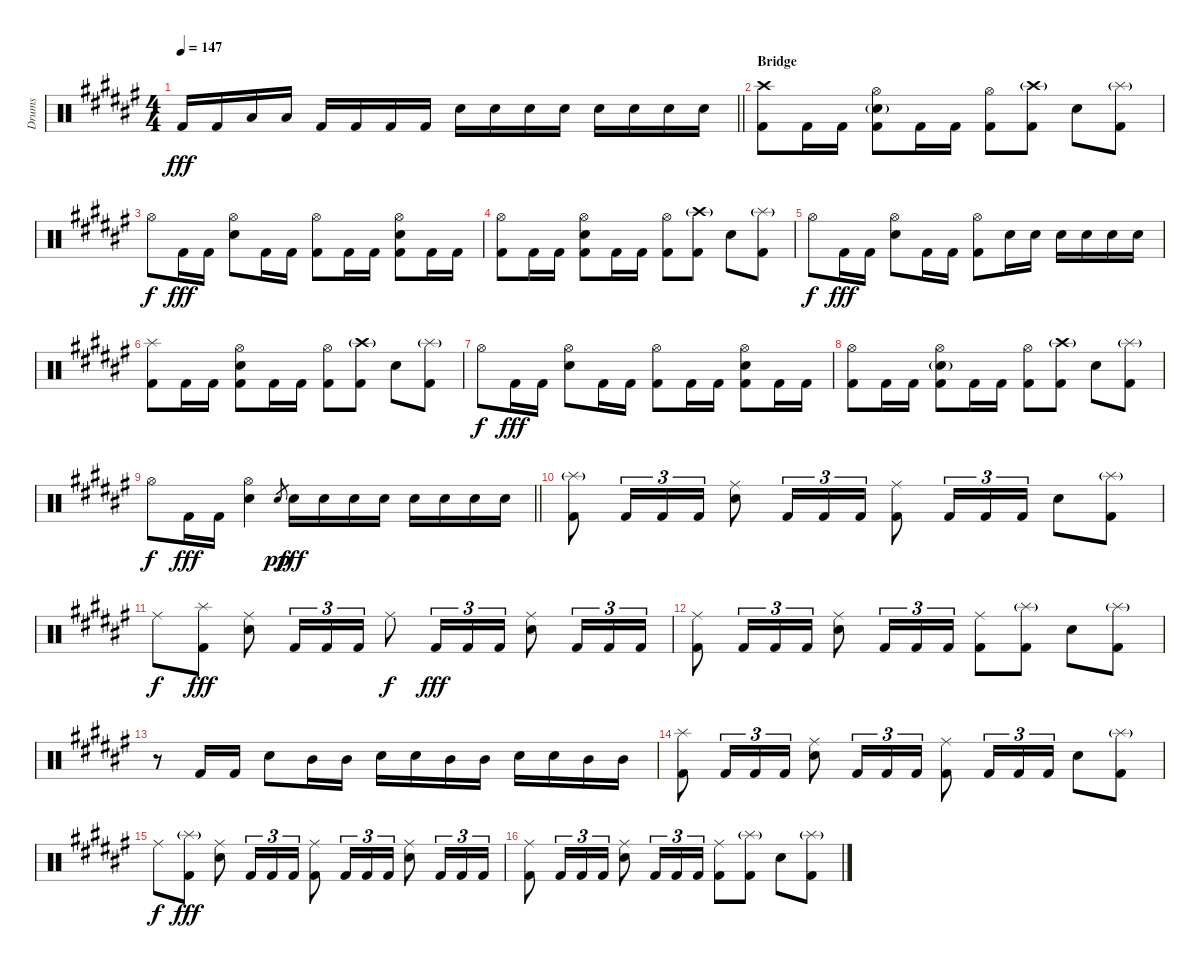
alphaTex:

\track ("Drums" "Drums") {instrument percussion}
\staff {score}
\articulation defaults
\ts (4 4)
\tempo 147
\clef neutral
\barLineRight lightlight
\ks d#minor "Kick (hit) 2".16{dy fff} "Kick (hit) 2".16 "Low Tom (hit)".16 "Low Tom (hit)".16 "Kick (hit) 2".16 "Kick (hit) 2".16 "Kick (hit) 2".16 "Kick (hit) 2".16 "Snare (hit) 2".16 "Snare (hit) 2".16 "Snare (hit) 2".16 "Snare (hit) 2".16 "Snare (hit) 2".16 "Snare (hit) 2".16 "Snare (hit) 2".16 "Snare (hit) 2".16
|
\section ("" "Bridge")
("Crash high (hit)" "Kick (hit) 2").8 "Kick (hit) 2".16 "Kick (hit) 2".16 ("Hi-Hat (open)" "Snare (hit) 2"{g} "Kick (hit) 2").8 "Kick (hit) 2".16 "Kick (hit) 2".16 ("Hi-Hat (open)" "Kick (hit) 2").8 ("Crash high (hit)"{g} "Kick (hit) 2").8 "Snare (hit) 2".8 ("Splash (hit)"{g} "Kick (hit) 2").8 |
"Hi-Hat (open)".8{dy f} "Kick (hit) 2".16{dy fff} "Kick (hit) 2".16 ("Hi-Hat (open)" "Snare (hit) 2").8 "Kick (hit) 2".16 "Kick (hit) 2".16 ("Hi-Hat (open)" "Kick (hit) 2").8 "Kick (hit) 2".16 "Kick (hit) 2".16 ("Hi-Hat (open)" "Snare (hit) 2" "Kick (hit) 2").8 "Kick (hit) 2".16 "Kick (hit) 2".16 |
("Hi-Hat (open)" "Kick (hit) 2").8 "Kick (hit) 2".16 "Kick (hit) 2".16 ("Hi-Hat (open)" "Snare (hit) 2" "Kick (hit) 2").8 "Kick (hit) 2".16 "Kick (hit) 2".16 ("Hi-Hat (open)" "Kick (hit) 2").8 ("Crash high (hit)"{g} "Kick (hit) 2").8 "Snare (hit) 2".8 ("Splash (hit)"{g} "Kick (hit) 2").8 |
"Hi-Hat (open)".8{dy f} "Kick (hit) 2".16{dy fff} "Kick (hit) 2".16 ("Hi-Hat (open)" "Snare (hit) 2").8 "Kick (hit) 2".16 "Kick (hit) 2".16 ("Hi-Hat (open)" "Kick (hit) 2").8 "Snare (hit) 2".16 "Snare (hit) 2".16 "Snare (hit) 2".16 "Snare (hit) 2".16 "Snare (hit) 2".16 "Snare (hit) 2".16 |
("Splash (hit)" "Kick (hit) 2").8 "Kick (hit) 2".16 "Kick (hit) 2".16 ("Hi-Hat (open)" "Snare (hit) 2" "Kick (hit) 2").8 "Kick (hit) 2".16 "Kick (hit) 2".16 ("Hi-Hat (open)" "Kick (hit) 2").8 ("Crash high (hit)"{g} "Kick (hit) 2").8 "Snare (hit) 2".8 ("Splash (hit)"{g} "Kick (hit) 2").8 |
"Hi-Hat (open)".8{dy f} "Kick (hit) 2".16{dy fff} "Kick (hit) 2".16 ("Hi-Hat (open)" "Snare (hit) 2").8 "Kick (hit) 2".16 "Kick (hit) 2".16 ("Hi-Hat (open)" "Kick (hit) 2").8 "Kick (hit) 2".16 "Kick (hit) 2".16 ("Hi-Hat (open)" "Snare (hit) 2" "Kick (hit) 2").8 "Kick (hit) 2".16 "Kick (hit) 2".16 |
("Hi-Hat (open)" "Kick (hit) 2").8 "Kick (hit) 2".16 "Kick (hit) 2".16 ("Hi-Hat (open)" "Snare (hit) 2"{g} "Kick (hit) 2").8 "Kick (hit) 2".16 "Kick (hit) 2".16 ("Hi-Hat (open)" "Kick (hit) 2").8 ("Crash high (hit)"{g} "Kick (hit) 2").8 "Snare (hit) 2".8 ("Splash (hit)"{g} "Kick (hit) 2").8 |
\barLineRight lightlight "Hi-Hat (open)".8{dy f} "Kick (hit) 2".16{dy fff} "Kick (hit) 2".16
("Hi-Hat (open)" "Snare (hit) 2").4 "Snare (hit) 2".8{gr dy pp} "Snare (hit) 2".16{dy fff} "Snare (hit) 2".16 "Snare (hit) 2".16 "Snare (hit) 2".16 "Snare (hit) 2".16 "Snare (hit) 2".16 "Snare (hit) 2".16 "Snare (hit) 2".16 |
\section ("" "")
("Splash (hit)"{g} "Kick (hit) 2").8 "Kick (hit) 2".16{tu (3 2)} "Kick (hit) 2".16{tu (3 2)} "Kick (hit) 2".16{tu (3 2)} ("Ride (middle)" "Snare (hit) 2").8 "Kick (hit) 2".16{tu (3 2)} "Kick (hit) 2".16{tu (3 2)} "Kick (hit) 2".16{tu (3 2)} ("Ride (middle)" "Kick (hit) 2").8 "Kick (hit) 2".16{tu (3 2)} "Kick (hit) 2".16{tu (3 2)} "Kick (hit) 2".16{tu (3 2)} "Snare (hit) 2".8 ("Splash (hit)"{g} "Kick (hit) 2").8 |
"Ride (middle)".8{dy f} ("Splash (hit)" "Kick (hit) 2").8{dy fff} ("Ride (middle)" "Snare (hit) 2").8 "Kick (hit) 2".16{tu (3 2)} "Kick (hit) 2".16{tu (3 2)} "Kick (hit) 2".16{tu (3 2)} "Ride (middle)".8{dy f} "Kick (hit) 2".16{tu (3 2) dy fff} "Kick (hit) 2".16{tu (3 2)} "Kick (hit) 2".16{tu (3 2)} ("Ride (middle)" "Snare (hit) 2").8 "Kick (hit) 2".16{tu (3 2)} "Kick (hit) 2".16{tu (3 2)} "Kick (hit) 2".16{tu (3 2)} |
("Ride (middle)" "Kick (hit) 2").8 "Kick (hit) 2".16{tu (3 2)} "Kick (hit) 2".16{tu (3 2)} "Kick (hit) 2".16{tu (3 2)} ("Ride (middle)" "Snare (hit) 2").8 "Kick (hit) 2".16{tu (3 2)} "Kick (hit) 2".16{tu (3 2)} "Kick (hit) 2".16{tu (3 2)} ("Ride (middle)" "Kick (hit) 2").8 ("Splash (hit)"{g} "Kick (hit) 2").8 "Snare (hit) 2".8 ("Splash (hit)"{g} "Kick (hit) 2").8 |
r.8 "Kick (hit) 2".16 "Kick (hit) 2".16 "Snare (hit) 2".8 "Mid Tom (hit)".16 "Mid Tom (hit)".16 "Snare (hit) 2".16 "Snare (hit) 2".16 "Mid Tom (hit)".16 "Mid Tom (hit)".16 "Snare (hit) 2".16 "Snare (hit) 2".16 "Mid Tom (hit)".16 "Mid Tom (hit)".16 |
("Splash (hit)" "Kick (hit) 2").8 "Kick (hit) 2".16{tu (3 2)} "Kick (hit) 2".16{tu (3 2)} "Kick (hit) 2".16{tu (3 2)} ("Ride (middle)" "Snare (hit) 2").8 "Kick (hit) 2".16{tu (3 2)} "Kick (hit) 2".16{tu (3 2)} "Kick (hit) 2".16{tu (3 2)} ("Ride (middle)" "Kick (hit) 2").8 "Kick (hit) 2".16{tu (3 2)} "Kick (hit) 2".16{tu (3 2)} "Kick (hit) 2".16{tu (3 2)} "Snare (hit) 2".8 ("Splash (hit)"{g} "Kick (hit) 2").8 |
"Ride (middle)".8{dy f} ("Splash (hit)"{g} "Kick (hit) 2").8{dy fff} ("Ride (middle)" "Snare (hit) 2").8 "Kick (hit) 2".16{tu (3 2)} "Kick (hit) 2".16{tu (3 2)} "Kick (hit) 2".16{tu (3 2)} ("Ride (middle)" "Kick (hit) 2").8 "Kick (hit) 2".16{tu (3 2)} "Kick (hit) 2".16{tu (3 2)} "Kick (hit) 2".16{tu (3 2)} ("Ride (middle)" "Snare (hit) 2").8 "Kick (hit) 2".16{tu (3 2)} "Kick (hit) 2".16{tu (3 2)} "Kick (hit) 2".16{tu (3 2)} |
("Ride (middle)" "Kick (hit) 2").8 "Kick (hit) 2".16{tu (3 2)} "Kick (hit) 2".16{tu (3 2)} "Kick (hit) 2".16{tu (3 2)} ("Ride (middle)" "Snare (hit) 2").8 "Kick (hit) 2".16{tu (3 2)} "Kick (hit) 2".16{tu (3 2)} "Kick (hit) 2".16{tu (3 2)} ("Ride (middle)" "Kick (hit) 2").8 ("Splash (hit)"{g} "Kick (hit) 2").8 "Snare (hit) 2".8 ("Splash (hit)"{g} "Kick (hit) 2").8
